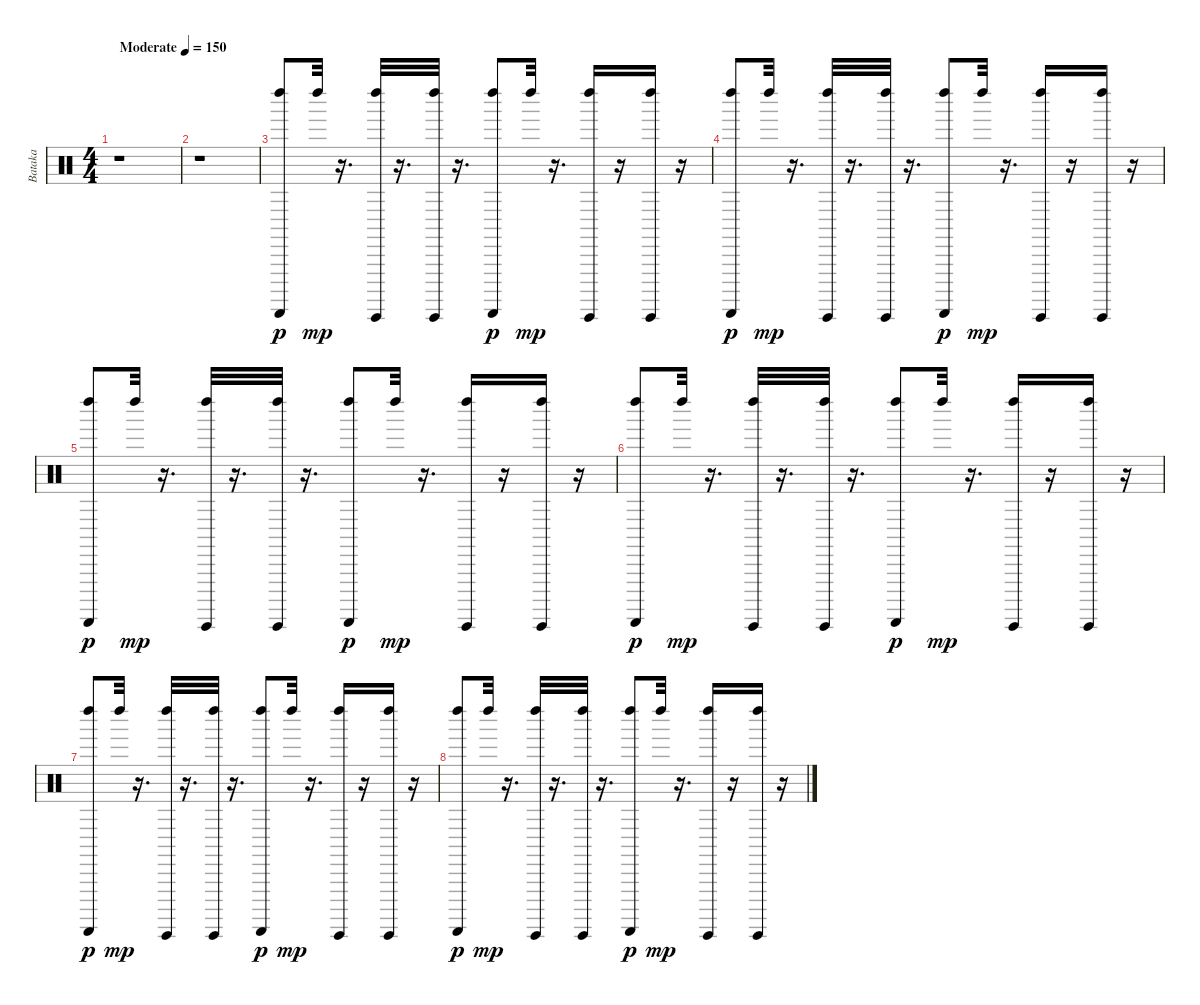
\track ("Bataka" "Bataka") {instrument percussion}
\staff {score}
\articulation defaults
\ts (4 4)
\tempo (150 "Moderate")
\clef neutral
\ks c
r.1{dy p} |
r.1 |
("Guiro (scrap-return)" "Left Maraca (hit)").8 "Left Maraca (hit)".32{dy mp} r.16{d} ("Guiro (hit)" "Left Maraca (hit)").32 r.16{d} ("Guiro (hit)" "Left Maraca (hit)").32 r.16{d} ("Guiro (scrap-return)" "Left Maraca (hit)").8{dy p} "Left Maraca (hit)".32{dy mp} r.16{d} ("Guiro (hit)" "Left Maraca (hit)").16 r.16 ("Guiro (hit)" "Left Maraca (hit)").16 r.16 |
("Guiro (scrap-return)" "Left Maraca (hit)").8{dy p} "Left Maraca (hit)".32{dy mp} r.16{d} ("Guiro (hit)" "Left Maraca (hit)").32 r.16{d} ("Guiro (hit)" "Left Maraca (hit)").32 r.16{d} ("Guiro (scrap-return)" "Left Maraca (hit)").8{dy p} "Left Maraca (hit)".32{dy mp} r.16{d} ("Guiro (hit)" "Left Maraca (hit)").16 r.16 ("Guiro (hit)" "Left Maraca (hit)").16 r.16 |
("Guiro (scrap-return)" "Left Maraca (hit)").8{dy p} "Left Maraca (hit)".32{dy mp} r.16{d} ("Guiro (hit)" "Left Maraca (hit)").32 r.16{d} ("Guiro (hit)" "Left Maraca (hit)").32 r.16{d} ("Guiro (scrap-return)" "Left Maraca (hit)").8{dy p} "Left Maraca (hit)".32{dy mp} r.16{d} ("Guiro (hit)" "Left Maraca (hit)").16 r.16 ("Guiro (hit)" "Left Maraca (hit)").16 r.16 |
("Guiro (scrap-return)" "Left Maraca (hit)").8{dy p} "Left Maraca (hit)".32{dy mp} r.16{d} ("Guiro (hit)" "Left Maraca (hit)").32 r.16{d} ("Guiro (hit)" "Left Maraca (hit)").32 r.16{d} ("Guiro (scrap-return)" "Left Maraca (hit)").8{dy p} "Left Maraca (hit)".32{dy mp} r.16{d} ("Guiro (hit)" "Left Maraca (hit)").16 r.16 ("Guiro (hit)" "Left Maraca (hit)").16 r.16 |
("Guiro (scrap-return)" "Left Maraca (hit)").8{dy p} "Left Maraca (hit)".32{dy mp} r.16{d} ("Guiro (hit)" "Left Maraca (hit)").32 r.16{d} ("Guiro (hit)" "Left Maraca (hit)").32 r.16{d} ("Guiro (scrap-return)" "Left Maraca (hit)").8{dy p} "Left Maraca (hit)".32{dy mp} r.16{d} ("Guiro (hit)" "Left Maraca (hit)").16 r.16 ("Guiro (hit)" "Left Maraca (hit)").16 r.16 |
("Guiro (scrap-return)" "Left Maraca (hit)").8{dy p} "Left Maraca (hit)".32{dy mp} r.16{d} ("Guiro (hit)" "Left Maraca (hit)").32 r.16{d} ("Guiro (hit)" "Left Maraca (hit)").32 r.16{d} ("Guiro (scrap-return)" "Left Maraca (hit)").8{dy p} "Left Maraca (hit)".32{dy mp} r.16{d} ("Guiro (hit)" "Left Maraca (hit)").16 r.16 ("Guiro (hit)" "Left Maraca (hit)").16 r.16
